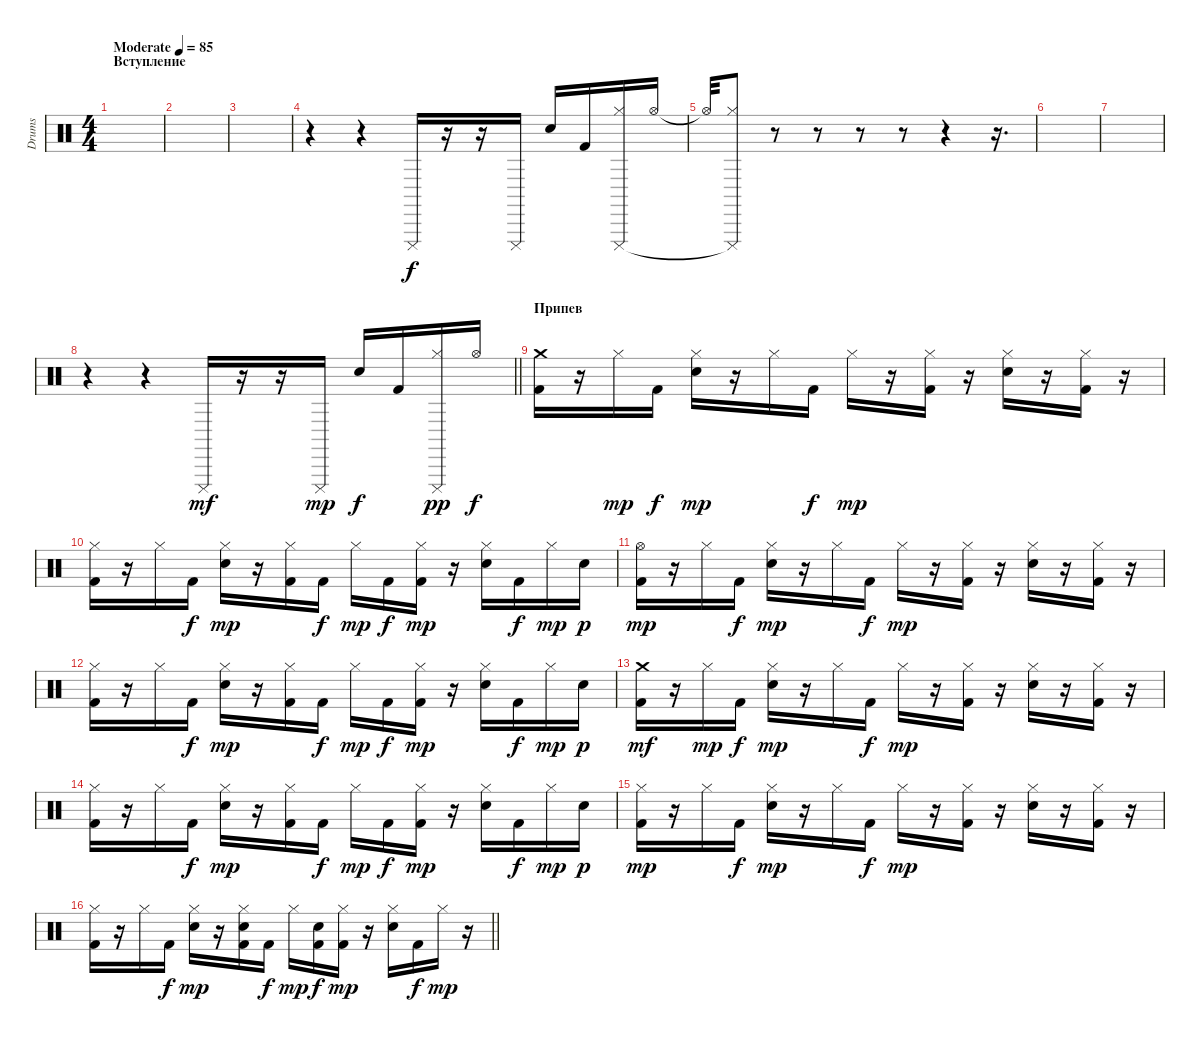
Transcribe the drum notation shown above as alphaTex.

\track ("Drums" "Drums") {instrument percussion}
\staff {score}
\articulation defaults
\ts (4 4)
\section ("" "Вступление")
\tempo (85 "Moderate")
\clef neutral
\ks c
|
|
|
r.4 r.4 "Cuica (mute)".16 r.16 r.16 "Cuica (mute)".16 "Snare (hit) 2".16{dy f} "Kick (hit) 2".16 ("Hi-Hat (closed)" "Cuica (mute)").16 "Hi-Hat (open)".16 |
"Hi-Hat (open)"{t}.32 ("Hi-Hat (closed)" "Cuica (mute)"{t}).8 r.8 r.8 r.8 r.8 r.4 r.16{d} |
|
|
\barLineRight lightlight
r.4 r.4 "Cuica (mute)".16{dy mf} r.16 r.16 "Cuica (mute)".16{dy mp} "Snare (hit) 2".16{dy f} "Kick (hit) 2".16 ("Hi-Hat (closed)" "Cuica (mute)").16{dy pp} "Hi-Hat (open)".16{dy f} |
\section ("" "Припев")
("Crash medium (hit)" "Kick (hit) 2").16 r.16 "Hi-Hat (closed)".16{dy mp} "Kick (hit) 2".16{dy f} ("Hi-Hat (closed)" "Snare (hit) 2").16{dy mp} r.16 "Hi-Hat (closed)".16 "Kick (hit) 2".16{dy f} "Hi-Hat (closed)".16{dy mp} r.16 ("Hi-Hat (closed)" "Kick (hit) 2").16 r.16 ("Hi-Hat (closed)" "Snare (hit) 2").16 r.16 ("Hi-Hat (closed)" "Kick (hit) 2").16 r.16 |
("Hi-Hat (closed)" "Kick (hit) 2").16 r.16 "Hi-Hat (closed)".16 "Kick (hit) 2".16{dy f} ("Hi-Hat (closed)" "Snare (hit) 2").16{dy mp} r.16 ("Hi-Hat (closed)" "Kick (hit) 2").16 "Kick (hit) 2".16{dy f} "Hi-Hat (closed)".16{dy mp} "Kick (hit) 2".16{dy f} ("Hi-Hat (closed)" "Kick (hit) 2").16{dy mp} r.16 ("Hi-Hat (closed)" "Snare (hit) 2").16 "Kick (hit) 2".16{dy f} "Hi-Hat (closed)".16{dy mp} "Snare (hit) 2".16{dy p} |
("Hi-Hat (open)" "Kick (hit) 2").16{dy mp} r.16 "Hi-Hat (closed)".16 "Kick (hit) 2".16{dy f} ("Hi-Hat (closed)" "Snare (hit) 2").16{dy mp} r.16 "Hi-Hat (closed)".16 "Kick (hit) 2".16{dy f} "Hi-Hat (closed)".16{dy mp} r.16 ("Hi-Hat (closed)" "Kick (hit) 2").16 r.16 ("Hi-Hat (closed)" "Snare (hit) 2").16 r.16 ("Hi-Hat (closed)" "Kick (hit) 2").16 r.16 |
("Hi-Hat (closed)" "Kick (hit) 2").16 r.16 "Hi-Hat (closed)".16 "Kick (hit) 2".16{dy f} ("Hi-Hat (closed)" "Snare (hit) 2").16{dy mp} r.16 ("Hi-Hat (closed)" "Kick (hit) 2").16 "Kick (hit) 2".16{dy f} "Hi-Hat (closed)".16{dy mp} "Kick (hit) 2".16{dy f} ("Hi-Hat (closed)" "Kick (hit) 2").16{dy mp} r.16 ("Hi-Hat (closed)" "Snare (hit) 2").16 "Kick (hit) 2".16{dy f} "Hi-Hat (closed)".16{dy mp} "Snare (hit) 2".16{dy p} |
("Crash medium (hit)" "Kick (hit) 2").16{dy mf} r.16 "Hi-Hat (closed)".16{dy mp} "Kick (hit) 2".16{dy f} ("Hi-Hat (closed)" "Snare (hit) 2").16{dy mp} r.16 "Hi-Hat (closed)".16 "Kick (hit) 2".16{dy f} "Hi-Hat (closed)".16{dy mp} r.16 ("Hi-Hat (closed)" "Kick (hit) 2").16 r.16 ("Hi-Hat (closed)" "Snare (hit) 2").16 r.16 ("Hi-Hat (closed)" "Kick (hit) 2").16 r.16 |
("Hi-Hat (closed)" "Kick (hit) 2").16 r.16 "Hi-Hat (closed)".16 "Kick (hit) 2".16{dy f} ("Hi-Hat (closed)" "Snare (hit) 2").16{dy mp} r.16 ("Hi-Hat (closed)" "Kick (hit) 2").16 "Kick (hit) 2".16{dy f} "Hi-Hat (closed)".16{dy mp} "Kick (hit) 2".16{dy f} ("Hi-Hat (closed)" "Kick (hit) 2").16{dy mp} r.16 ("Hi-Hat (closed)" "Snare (hit) 2").16 "Kick (hit) 2".16{dy f} "Hi-Hat (closed)".16{dy mp} "Snare (hit) 2".16{dy p} |
("Hi-Hat (closed)" "Kick (hit) 2").16{dy mp} r.16 "Hi-Hat (closed)".16 "Kick (hit) 2".16{dy f} ("Hi-Hat (closed)" "Snare (hit) 2").16{dy mp} r.16 "Hi-Hat (closed)".16 "Kick (hit) 2".16{dy f} "Hi-Hat (closed)".16{dy mp} r.16 ("Hi-Hat (closed)" "Kick (hit) 2").16 r.16 ("Hi-Hat (closed)" "Snare (hit) 2").16 r.16 ("Hi-Hat (closed)" "Kick (hit) 2").16 r.16 |
\barLineRight lightlight
("Hi-Hat (closed)" "Kick (hit) 2").16 r.16 "Hi-Hat (closed)".16 "Kick (hit) 2".16{dy f} ("Hi-Hat (closed)" "Snare (hit) 2").16{dy mp} r.16 ("Hi-Hat (closed)" "Snare (hit) 2" "Kick (hit) 2").16 "Kick (hit) 2".16{dy f} "Hi-Hat (closed)".16{dy mp} ("Snare (hit) 2" "Kick (hit) 2").16{dy f} ("Hi-Hat (closed)" "Kick (hit) 2").16{dy mp} r.16 ("Hi-Hat (closed)" "Snare (hit) 2").16 "Kick (hit) 2".16{dy f} "Hi-Hat (closed)".16{dy mp} r.16
